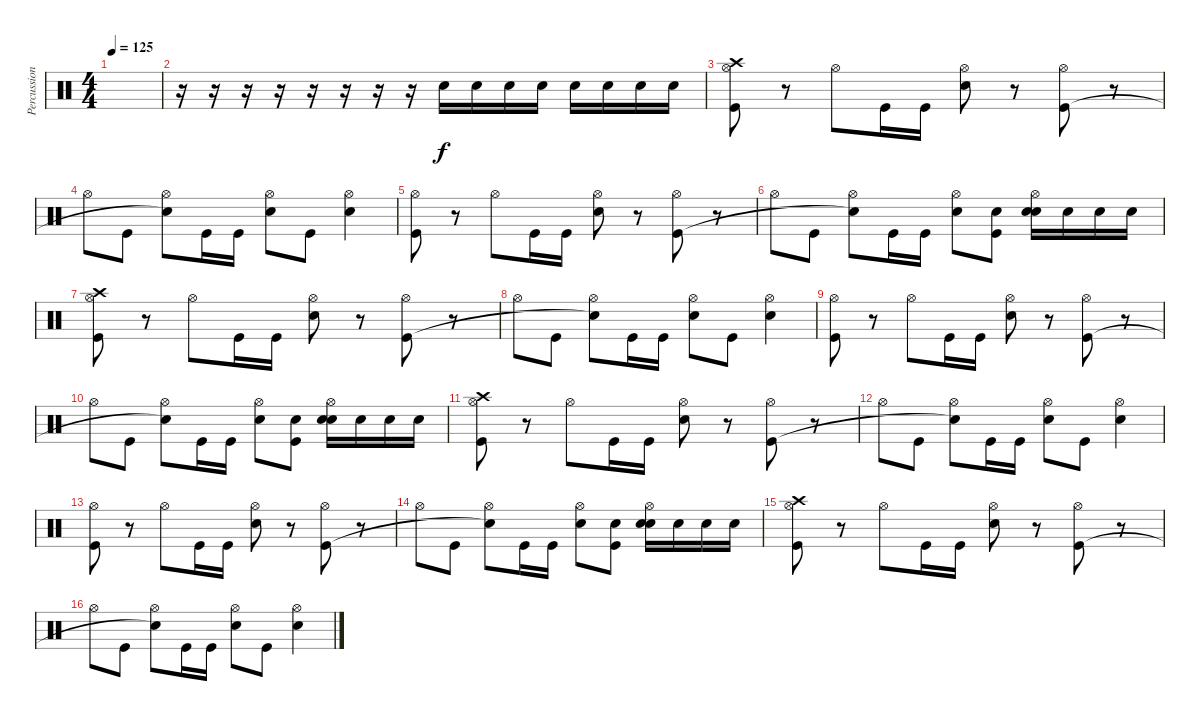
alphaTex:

\track ("Percussion" "Percussion") {instrument percussion}
\staff {score}
\articulation defaults
\ts (4 4)
\tempo 125
\clef neutral
\ks c
|
r.16 r.16 r.16 r.16 r.16 r.16 r.16 r.16 "Electric Snare (hit)".16 "Electric Snare (hit)".16 "Electric Snare (hit)".16 "Electric Snare (hit)".16 "Electric Snare (hit)".16 "Electric Snare (hit)".16 "Electric Snare (hit)".16 "Electric Snare (hit)".16 |
("Crash high (hit)" "Hi-Hat (open)" "Kick (hit)").8 r.8 "Hi-Hat (open)".8 "Kick (hit)".16 "Kick (hit)".16 ("Hi-Hat (open)" "Electric Snare (hit)").8 r.8 ("Hi-Hat (open)" "Kick (hit)").8 r.8 |
"Hi-Hat (open)".8 "Kick (hit)".8 ("Hi-Hat (open)" "Snare (hit)"{t}).8 "Kick (hit)".16 "Kick (hit)".16 ("Hi-Hat (open)" "Electric Snare (hit)").8 "Kick (hit)".8 ("Hi-Hat (open)" "Electric Snare (hit)").4 |
("Hi-Hat (open)" "Kick (hit)").8 r.8 "Hi-Hat (open)".8 "Kick (hit)".16 "Kick (hit)".16 ("Hi-Hat (open)" "Electric Snare (hit)").8 r.8 ("Hi-Hat (open)" "Kick (hit)").8 r.8 |
"Hi-Hat (open)".8 "Kick (hit)".8 ("Hi-Hat (open)" "Snare (hit)"{t}).8 "Kick (hit)".16 "Kick (hit)".16 ("Hi-Hat (open)" "Electric Snare (hit)").8 ("Electric Snare (hit)" "Kick (hit)").8 ("Electric Snare (hit)" "Hi-Hat (open)" "Electric Snare (hit)").16 "Electric Snare (hit)".16 "Electric Snare (hit)".16 "Electric Snare (hit)".16 |
("Crash high (hit)" "Hi-Hat (open)" "Kick (hit)").8 r.8 "Hi-Hat (open)".8 "Kick (hit)".16 "Kick (hit)".16 ("Hi-Hat (open)" "Electric Snare (hit)").8 r.8 ("Hi-Hat (open)" "Kick (hit)").8 r.8 |
"Hi-Hat (open)".8 "Kick (hit)".8 ("Hi-Hat (open)" "Snare (hit)"{t}).8 "Kick (hit)".16 "Kick (hit)".16 ("Hi-Hat (open)" "Electric Snare (hit)").8 "Kick (hit)".8 ("Hi-Hat (open)" "Electric Snare (hit)").4 |
("Hi-Hat (open)" "Kick (hit)").8 r.8 "Hi-Hat (open)".8 "Kick (hit)".16 "Kick (hit)".16 ("Hi-Hat (open)" "Electric Snare (hit)").8 r.8 ("Hi-Hat (open)" "Kick (hit)").8 r.8 |
"Hi-Hat (open)".8 "Kick (hit)".8 ("Hi-Hat (open)" "Snare (hit)"{t}).8 "Kick (hit)".16 "Kick (hit)".16 ("Hi-Hat (open)" "Electric Snare (hit)").8 ("Electric Snare (hit)" "Kick (hit)").8 ("Electric Snare (hit)" "Hi-Hat (open)" "Electric Snare (hit)").16 "Electric Snare (hit)".16 "Electric Snare (hit)".16 "Electric Snare (hit)".16 |
("Crash high (hit)" "Hi-Hat (open)" "Kick (hit)").8 r.8 "Hi-Hat (open)".8 "Kick (hit)".16 "Kick (hit)".16 ("Hi-Hat (open)" "Electric Snare (hit)").8 r.8 ("Hi-Hat (open)" "Kick (hit)").8 r.8 |
"Hi-Hat (open)".8 "Kick (hit)".8 ("Hi-Hat (open)" "Snare (hit)"{t}).8 "Kick (hit)".16 "Kick (hit)".16 ("Hi-Hat (open)" "Electric Snare (hit)").8 "Kick (hit)".8 ("Hi-Hat (open)" "Electric Snare (hit)").4 |
("Hi-Hat (open)" "Kick (hit)").8 r.8 "Hi-Hat (open)".8 "Kick (hit)".16 "Kick (hit)".16 ("Hi-Hat (open)" "Electric Snare (hit)").8 r.8 ("Hi-Hat (open)" "Kick (hit)").8 r.8 |
"Hi-Hat (open)".8 "Kick (hit)".8 ("Hi-Hat (open)" "Snare (hit)"{t}).8 "Kick (hit)".16 "Kick (hit)".16 ("Hi-Hat (open)" "Electric Snare (hit)").8 ("Electric Snare (hit)" "Kick (hit)").8 ("Electric Snare (hit)" "Hi-Hat (open)" "Electric Snare (hit)").16 "Electric Snare (hit)".16 "Electric Snare (hit)".16 "Electric Snare (hit)".16 |
("Crash high (hit)" "Hi-Hat (open)" "Kick (hit)").8 r.8 "Hi-Hat (open)".8 "Kick (hit)".16 "Kick (hit)".16 ("Hi-Hat (open)" "Electric Snare (hit)").8 r.8 ("Hi-Hat (open)" "Kick (hit)").8 r.8 |
"Hi-Hat (open)".8 "Kick (hit)".8 ("Hi-Hat (open)" "Snare (hit)"{t}).8 "Kick (hit)".16 "Kick (hit)".16 ("Hi-Hat (open)" "Electric Snare (hit)").8 "Kick (hit)".8 ("Hi-Hat (open)" "Electric Snare (hit)").4
